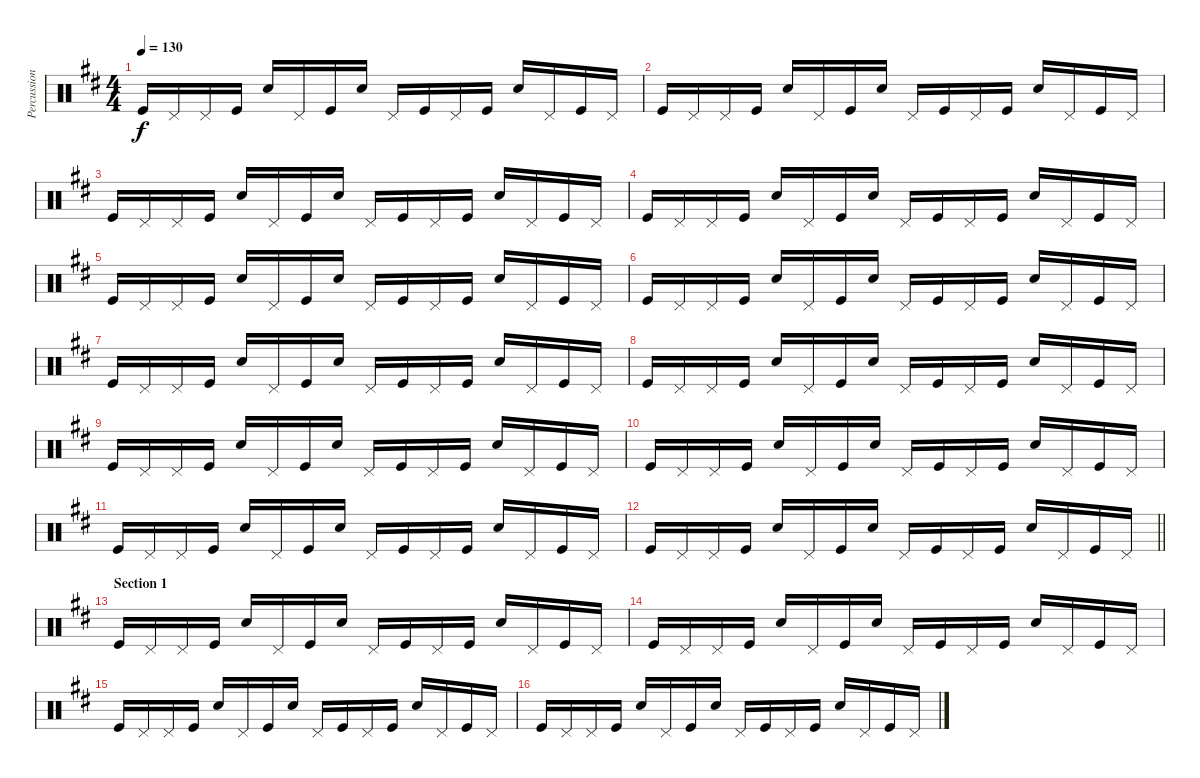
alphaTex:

\track ("Percussion" "Percussion") {instrument percussion}
\staff {score}
\articulation defaults
\ts (4 4)
\tempo 130
\clef neutral
\ks d "Kick (hit)".16{dy f} "Pedal Hi-Hat (hit)".16 "Pedal Hi-Hat (hit)".16 "Kick (hit)".16 "Snare (hit) 2".16 "Pedal Hi-Hat (hit)".16 "Kick (hit)".16 "Snare (hit) 2".16 "Pedal Hi-Hat (hit)".16 "Kick (hit)".16 "Pedal Hi-Hat (hit)".16 "Kick (hit)".16 "Snare (hit) 2".16 "Pedal Hi-Hat (hit)".16 "Kick (hit)".16 "Pedal Hi-Hat (hit)".16
|
"Kick (hit)".16 "Pedal Hi-Hat (hit)".16 "Pedal Hi-Hat (hit)".16 "Kick (hit)".16 "Snare (hit) 2".16 "Pedal Hi-Hat (hit)".16 "Kick (hit)".16 "Snare (hit) 2".16 "Pedal Hi-Hat (hit)".16 "Kick (hit)".16 "Pedal Hi-Hat (hit)".16 "Kick (hit)".16 "Snare (hit) 2".16 "Pedal Hi-Hat (hit)".16 "Kick (hit)".16 "Pedal Hi-Hat (hit)".16 |
"Kick (hit)".16 "Pedal Hi-Hat (hit)".16 "Pedal Hi-Hat (hit)".16 "Kick (hit)".16 "Snare (hit) 2".16 "Pedal Hi-Hat (hit)".16 "Kick (hit)".16 "Snare (hit) 2".16 "Pedal Hi-Hat (hit)".16 "Kick (hit)".16 "Pedal Hi-Hat (hit)".16 "Kick (hit)".16 "Snare (hit) 2".16 "Pedal Hi-Hat (hit)".16 "Kick (hit)".16 "Pedal Hi-Hat (hit)".16 |
"Kick (hit)".16 "Pedal Hi-Hat (hit)".16 "Pedal Hi-Hat (hit)".16 "Kick (hit)".16 "Snare (hit) 2".16 "Pedal Hi-Hat (hit)".16 "Kick (hit)".16 "Snare (hit) 2".16 "Pedal Hi-Hat (hit)".16 "Kick (hit)".16 "Pedal Hi-Hat (hit)".16 "Kick (hit)".16 "Snare (hit) 2".16 "Pedal Hi-Hat (hit)".16 "Kick (hit)".16 "Pedal Hi-Hat (hit)".16 |
"Kick (hit)".16 "Pedal Hi-Hat (hit)".16 "Pedal Hi-Hat (hit)".16 "Kick (hit)".16 "Snare (hit) 2".16 "Pedal Hi-Hat (hit)".16 "Kick (hit)".16 "Snare (hit) 2".16 "Pedal Hi-Hat (hit)".16 "Kick (hit)".16 "Pedal Hi-Hat (hit)".16 "Kick (hit)".16 "Snare (hit) 2".16 "Pedal Hi-Hat (hit)".16 "Kick (hit)".16 "Pedal Hi-Hat (hit)".16 |
"Kick (hit)".16 "Pedal Hi-Hat (hit)".16 "Pedal Hi-Hat (hit)".16 "Kick (hit)".16 "Snare (hit) 2".16 "Pedal Hi-Hat (hit)".16 "Kick (hit)".16 "Snare (hit) 2".16 "Pedal Hi-Hat (hit)".16 "Kick (hit)".16 "Pedal Hi-Hat (hit)".16 "Kick (hit)".16 "Snare (hit) 2".16 "Pedal Hi-Hat (hit)".16 "Kick (hit)".16 "Pedal Hi-Hat (hit)".16 |
"Kick (hit)".16 "Pedal Hi-Hat (hit)".16 "Pedal Hi-Hat (hit)".16 "Kick (hit)".16 "Snare (hit) 2".16 "Pedal Hi-Hat (hit)".16 "Kick (hit)".16 "Snare (hit) 2".16 "Pedal Hi-Hat (hit)".16 "Kick (hit)".16 "Pedal Hi-Hat (hit)".16 "Kick (hit)".16 "Snare (hit) 2".16 "Pedal Hi-Hat (hit)".16 "Kick (hit)".16 "Pedal Hi-Hat (hit)".16 |
"Kick (hit)".16 "Pedal Hi-Hat (hit)".16 "Pedal Hi-Hat (hit)".16 "Kick (hit)".16 "Snare (hit) 2".16 "Pedal Hi-Hat (hit)".16 "Kick (hit)".16 "Snare (hit) 2".16 "Pedal Hi-Hat (hit)".16 "Kick (hit)".16 "Pedal Hi-Hat (hit)".16 "Kick (hit)".16 "Snare (hit) 2".16 "Pedal Hi-Hat (hit)".16 "Kick (hit)".16 "Pedal Hi-Hat (hit)".16 |
"Kick (hit)".16 "Pedal Hi-Hat (hit)".16 "Pedal Hi-Hat (hit)".16 "Kick (hit)".16 "Snare (hit) 2".16 "Pedal Hi-Hat (hit)".16 "Kick (hit)".16 "Snare (hit) 2".16 "Pedal Hi-Hat (hit)".16 "Kick (hit)".16 "Pedal Hi-Hat (hit)".16 "Kick (hit)".16 "Snare (hit) 2".16 "Pedal Hi-Hat (hit)".16 "Kick (hit)".16 "Pedal Hi-Hat (hit)".16 |
"Kick (hit)".16 "Pedal Hi-Hat (hit)".16 "Pedal Hi-Hat (hit)".16 "Kick (hit)".16 "Snare (hit) 2".16 "Pedal Hi-Hat (hit)".16 "Kick (hit)".16 "Snare (hit) 2".16 "Pedal Hi-Hat (hit)".16 "Kick (hit)".16 "Pedal Hi-Hat (hit)".16 "Kick (hit)".16 "Snare (hit) 2".16 "Pedal Hi-Hat (hit)".16 "Kick (hit)".16 "Pedal Hi-Hat (hit)".16 |
"Kick (hit)".16 "Pedal Hi-Hat (hit)".16 "Pedal Hi-Hat (hit)".16 "Kick (hit)".16 "Snare (hit) 2".16 "Pedal Hi-Hat (hit)".16 "Kick (hit)".16 "Snare (hit) 2".16 "Pedal Hi-Hat (hit)".16 "Kick (hit)".16 "Pedal Hi-Hat (hit)".16 "Kick (hit)".16 "Snare (hit) 2".16 "Pedal Hi-Hat (hit)".16 "Kick (hit)".16 "Pedal Hi-Hat (hit)".16 |
\barLineRight lightlight "Kick (hit)".16 "Pedal Hi-Hat (hit)".16 "Pedal Hi-Hat (hit)".16 "Kick (hit)".16 "Snare (hit) 2".16 "Pedal Hi-Hat (hit)".16 "Kick (hit)".16 "Snare (hit) 2".16 "Pedal Hi-Hat (hit)".16 "Kick (hit)".16 "Pedal Hi-Hat (hit)".16 "Kick (hit)".16 "Snare (hit) 2".16 "Pedal Hi-Hat (hit)".16 "Kick (hit)".16 "Pedal Hi-Hat (hit)".16
|
\section ("" "Section 1")
"Kick (hit)".16 "Pedal Hi-Hat (hit)".16 "Pedal Hi-Hat (hit)".16 "Kick (hit)".16 "Snare (hit) 2".16 "Pedal Hi-Hat (hit)".16 "Kick (hit)".16 "Snare (hit) 2".16 "Pedal Hi-Hat (hit)".16 "Kick (hit)".16 "Pedal Hi-Hat (hit)".16 "Kick (hit)".16 "Snare (hit) 2".16 "Pedal Hi-Hat (hit)".16 "Kick (hit)".16 "Pedal Hi-Hat (hit)".16 |
"Kick (hit)".16 "Pedal Hi-Hat (hit)".16 "Pedal Hi-Hat (hit)".16 "Kick (hit)".16 "Snare (hit) 2".16 "Pedal Hi-Hat (hit)".16 "Kick (hit)".16 "Snare (hit) 2".16 "Pedal Hi-Hat (hit)".16 "Kick (hit)".16 "Pedal Hi-Hat (hit)".16 "Kick (hit)".16 "Snare (hit) 2".16 "Pedal Hi-Hat (hit)".16 "Kick (hit)".16 "Pedal Hi-Hat (hit)".16 |
"Kick (hit)".16 "Pedal Hi-Hat (hit)".16 "Pedal Hi-Hat (hit)".16 "Kick (hit)".16 "Snare (hit) 2".16 "Pedal Hi-Hat (hit)".16 "Kick (hit)".16 "Snare (hit) 2".16 "Pedal Hi-Hat (hit)".16 "Kick (hit)".16 "Pedal Hi-Hat (hit)".16 "Kick (hit)".16 "Snare (hit) 2".16 "Pedal Hi-Hat (hit)".16 "Kick (hit)".16 "Pedal Hi-Hat (hit)".16 |
"Kick (hit)".16 "Pedal Hi-Hat (hit)".16 "Pedal Hi-Hat (hit)".16 "Kick (hit)".16 "Snare (hit) 2".16 "Pedal Hi-Hat (hit)".16 "Kick (hit)".16 "Snare (hit) 2".16 "Pedal Hi-Hat (hit)".16 "Kick (hit)".16 "Pedal Hi-Hat (hit)".16 "Kick (hit)".16 "Snare (hit) 2".16 "Pedal Hi-Hat (hit)".16 "Kick (hit)".16 "Pedal Hi-Hat (hit)".16
